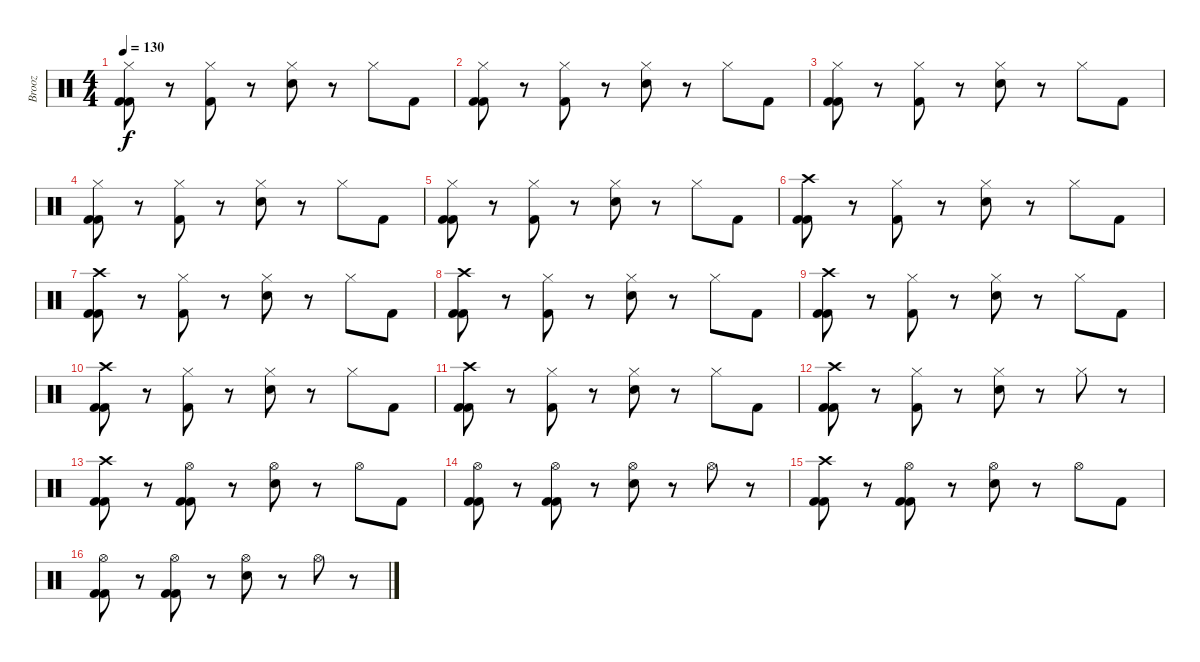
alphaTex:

\track ("Brooz" "Brooz") {instrument percussion}
\staff {score}
\articulation defaults
\ts (4 4)
\tempo 130
\clef neutral
\ks c
("Kick (hit) 2" "Hi-Hat (closed)" "Kick (hit) 2").8{dy f} r.8 ("Hi-Hat (closed)" "Kick (hit) 2").8 r.8 ("Hi-Hat (closed)" "Electric Snare (hit)").8 r.8 "Hi-Hat (closed)".8 "Kick (hit) 2".8 |
("Kick (hit) 2" "Hi-Hat (closed)" "Kick (hit) 2").8 r.8 ("Hi-Hat (closed)" "Kick (hit) 2").8 r.8 ("Hi-Hat (closed)" "Electric Snare (hit)").8 r.8 "Hi-Hat (closed)".8 "Kick (hit) 2".8 |
("Kick (hit) 2" "Hi-Hat (closed)" "Kick (hit) 2").8 r.8 ("Hi-Hat (closed)" "Kick (hit) 2").8 r.8 ("Hi-Hat (closed)" "Electric Snare (hit)").8 r.8 "Hi-Hat (closed)".8 "Kick (hit) 2".8 |
("Kick (hit) 2" "Hi-Hat (closed)" "Kick (hit) 2").8 r.8 ("Hi-Hat (closed)" "Kick (hit) 2").8 r.8 ("Hi-Hat (closed)" "Electric Snare (hit)").8 r.8 "Hi-Hat (closed)".8 "Kick (hit) 2".8 |
("Kick (hit) 2" "Hi-Hat (closed)" "Kick (hit) 2").8 r.8 ("Hi-Hat (closed)" "Kick (hit) 2").8 r.8 ("Hi-Hat (closed)" "Electric Snare (hit)").8 r.8 "Hi-Hat (closed)".8 "Kick (hit) 2".8 |
("Kick (hit) 2" "Crash high (hit)" "Kick (hit) 2").8 r.8 ("Hi-Hat (closed)" "Kick (hit) 2").8 r.8 ("Hi-Hat (closed)" "Electric Snare (hit)").8 r.8 "Hi-Hat (closed)".8 "Kick (hit) 2".8 |
("Kick (hit) 2" "Crash high (hit)" "Kick (hit) 2").8 r.8 ("Hi-Hat (closed)" "Kick (hit) 2").8 r.8 ("Hi-Hat (closed)" "Electric Snare (hit)").8 r.8 "Hi-Hat (closed)".8 "Kick (hit) 2".8 |
("Kick (hit) 2" "Crash high (hit)" "Kick (hit) 2").8 r.8 ("Hi-Hat (closed)" "Kick (hit) 2").8 r.8 ("Hi-Hat (closed)" "Electric Snare (hit)").8 r.8 "Hi-Hat (closed)".8 "Kick (hit) 2".8 |
("Kick (hit) 2" "Crash high (hit)" "Kick (hit) 2").8 r.8 ("Hi-Hat (closed)" "Kick (hit) 2").8 r.8 ("Hi-Hat (closed)" "Electric Snare (hit)").8 r.8 "Hi-Hat (closed)".8 "Kick (hit) 2".8 |
("Kick (hit) 2" "Crash high (hit)" "Kick (hit) 2").8 r.8 ("Hi-Hat (closed)" "Kick (hit) 2").8 r.8 ("Hi-Hat (closed)" "Electric Snare (hit)").8 r.8 "Hi-Hat (closed)".8 "Kick (hit) 2".8 |
("Kick (hit) 2" "Crash high (hit)" "Kick (hit) 2").8 r.8 ("Hi-Hat (closed)" "Kick (hit) 2").8 r.8 ("Hi-Hat (closed)" "Electric Snare (hit)").8 r.8 "Hi-Hat (closed)".8 "Kick (hit) 2".8 |
("Kick (hit) 2" "Crash high (hit)" "Kick (hit) 2").8 r.8 ("Hi-Hat (closed)" "Kick (hit) 2").8 r.8 ("Hi-Hat (closed)" "Electric Snare (hit)").8 r.8 "Hi-Hat (closed)".8 r.8 |
("Kick (hit) 2" "Crash high (hit)" "Kick (hit) 2").8 r.8 ("Kick (hit) 2" "Hi-Hat (open)" "Kick (hit) 2").8 r.8 ("Hi-Hat (open)" "Electric Snare (hit)").8 r.8 "Hi-Hat (open)".8 "Kick (hit) 2".8 |
("Kick (hit) 2" "Hi-Hat (open)" "Kick (hit) 2").8 r.8 ("Kick (hit) 2" "Hi-Hat (open)" "Kick (hit) 2").8 r.8 ("Hi-Hat (open)" "Electric Snare (hit)").8 r.8 "Hi-Hat (open)".8 r.8 |
("Kick (hit) 2" "Crash high (hit)" "Kick (hit) 2").8 r.8 ("Kick (hit) 2" "Hi-Hat (open)" "Kick (hit) 2").8 r.8 ("Hi-Hat (open)" "Electric Snare (hit)").8 r.8 "Hi-Hat (open)".8 "Kick (hit) 2".8 |
("Kick (hit) 2" "Hi-Hat (open)" "Kick (hit) 2").8 r.8 ("Kick (hit) 2" "Hi-Hat (open)" "Kick (hit) 2").8 r.8 ("Hi-Hat (open)" "Electric Snare (hit)").8 r.8 "Hi-Hat (open)".8 r.8
